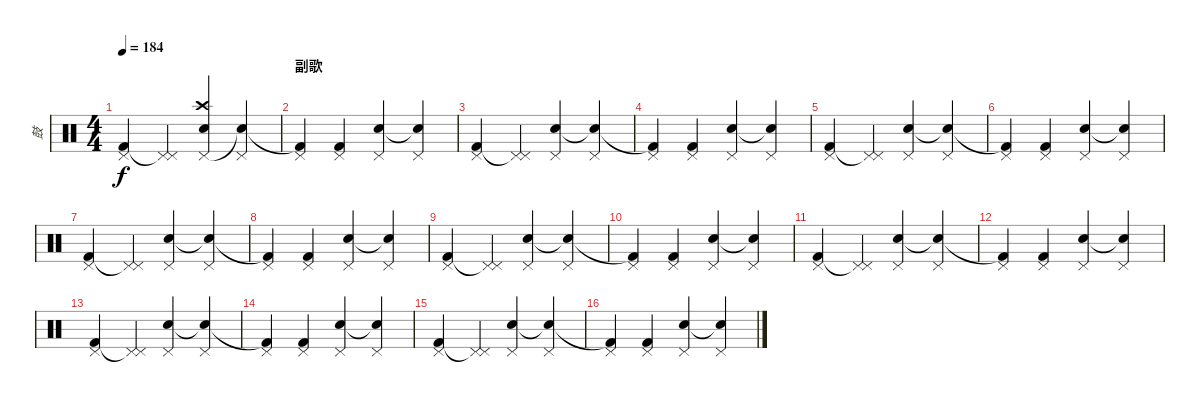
\track ("鼓" "鼓") {instrument percussion}
\staff {score}
\articulation defaults
\ts (4 4)
\tempo 184
\clef neutral
\ks c
("Pedal Hi-Hat (hit)" "Kick (hit) 2").4{dy f} ("Pedal Hi-Hat (hit)" "Pedal Hi-Hat (hit)"{t}).4 ("Crash high (hit)" "Pedal Hi-Hat (hit)" "Electric Snare (hit)").4 ("Pedal Hi-Hat (hit)" "Snare (hit)"{t}).4 |
\section ("" "副歌")
("Pedal Hi-Hat (hit)" "Kick (hit) 2"{t}).4{volume 12} ("Pedal Hi-Hat (hit)" "Kick (hit) 2").4 ("Pedal Hi-Hat (hit)" "Electric Snare (hit)").4 ("Pedal Hi-Hat (hit)" "Snare (hit)"{t}).4 |
("Pedal Hi-Hat (hit)" "Kick (hit) 2").4 ("Pedal Hi-Hat (hit)" "Pedal Hi-Hat (hit)"{t}).4 ("Pedal Hi-Hat (hit)" "Electric Snare (hit)").4 ("Pedal Hi-Hat (hit)" "Snare (hit)"{t}).4 |
("Pedal Hi-Hat (hit)" "Kick (hit) 2"{t}).4 ("Pedal Hi-Hat (hit)" "Kick (hit) 2").4 ("Pedal Hi-Hat (hit)" "Electric Snare (hit)").4 ("Pedal Hi-Hat (hit)" "Snare (hit)"{t}).4 |
("Pedal Hi-Hat (hit)" "Kick (hit) 2").4 ("Pedal Hi-Hat (hit)" "Pedal Hi-Hat (hit)"{t}).4 ("Pedal Hi-Hat (hit)" "Electric Snare (hit)").4 ("Pedal Hi-Hat (hit)" "Snare (hit)"{t}).4 |
("Pedal Hi-Hat (hit)" "Kick (hit) 2"{t}).4 ("Pedal Hi-Hat (hit)" "Kick (hit) 2").4 ("Pedal Hi-Hat (hit)" "Electric Snare (hit)").4 ("Pedal Hi-Hat (hit)" "Snare (hit)"{t}).4 |
("Pedal Hi-Hat (hit)" "Kick (hit) 2").4 ("Pedal Hi-Hat (hit)" "Pedal Hi-Hat (hit)"{t}).4 ("Pedal Hi-Hat (hit)" "Electric Snare (hit)").4 ("Pedal Hi-Hat (hit)" "Snare (hit)"{t}).4 |
("Pedal Hi-Hat (hit)" "Kick (hit) 2"{t}).4 ("Pedal Hi-Hat (hit)" "Kick (hit) 2").4 ("Pedal Hi-Hat (hit)" "Electric Snare (hit)").4 ("Pedal Hi-Hat (hit)" "Snare (hit)"{t}).4 |
("Pedal Hi-Hat (hit)" "Kick (hit) 2").4 ("Pedal Hi-Hat (hit)" "Pedal Hi-Hat (hit)"{t}).4 ("Pedal Hi-Hat (hit)" "Electric Snare (hit)").4 ("Pedal Hi-Hat (hit)" "Snare (hit)"{t}).4 |
("Pedal Hi-Hat (hit)" "Kick (hit) 2"{t}).4 ("Pedal Hi-Hat (hit)" "Kick (hit) 2").4 ("Pedal Hi-Hat (hit)" "Electric Snare (hit)").4 ("Pedal Hi-Hat (hit)" "Snare (hit)"{t}).4 |
("Pedal Hi-Hat (hit)" "Kick (hit) 2").4 ("Pedal Hi-Hat (hit)" "Pedal Hi-Hat (hit)"{t}).4 ("Pedal Hi-Hat (hit)" "Electric Snare (hit)").4 ("Pedal Hi-Hat (hit)" "Snare (hit)"{t}).4 |
("Pedal Hi-Hat (hit)" "Kick (hit) 2"{t}).4 ("Pedal Hi-Hat (hit)" "Kick (hit) 2").4 ("Pedal Hi-Hat (hit)" "Electric Snare (hit)").4 ("Pedal Hi-Hat (hit)" "Snare (hit)"{t}).4 |
("Pedal Hi-Hat (hit)" "Kick (hit) 2").4 ("Pedal Hi-Hat (hit)" "Pedal Hi-Hat (hit)"{t}).4 ("Pedal Hi-Hat (hit)" "Electric Snare (hit)").4 ("Pedal Hi-Hat (hit)" "Snare (hit)"{t}).4 |
("Pedal Hi-Hat (hit)" "Kick (hit) 2"{t}).4 ("Pedal Hi-Hat (hit)" "Kick (hit) 2").4 ("Pedal Hi-Hat (hit)" "Electric Snare (hit)").4 ("Pedal Hi-Hat (hit)" "Snare (hit)"{t}).4 |
("Pedal Hi-Hat (hit)" "Kick (hit) 2").4 ("Pedal Hi-Hat (hit)" "Pedal Hi-Hat (hit)"{t}).4 ("Pedal Hi-Hat (hit)" "Electric Snare (hit)").4 ("Pedal Hi-Hat (hit)" "Snare (hit)"{t}).4 |
("Pedal Hi-Hat (hit)" "Kick (hit) 2"{t}).4 ("Pedal Hi-Hat (hit)" "Kick (hit) 2").4 ("Pedal Hi-Hat (hit)" "Electric Snare (hit)").4 ("Pedal Hi-Hat (hit)" "Snare (hit)"{t}).4
